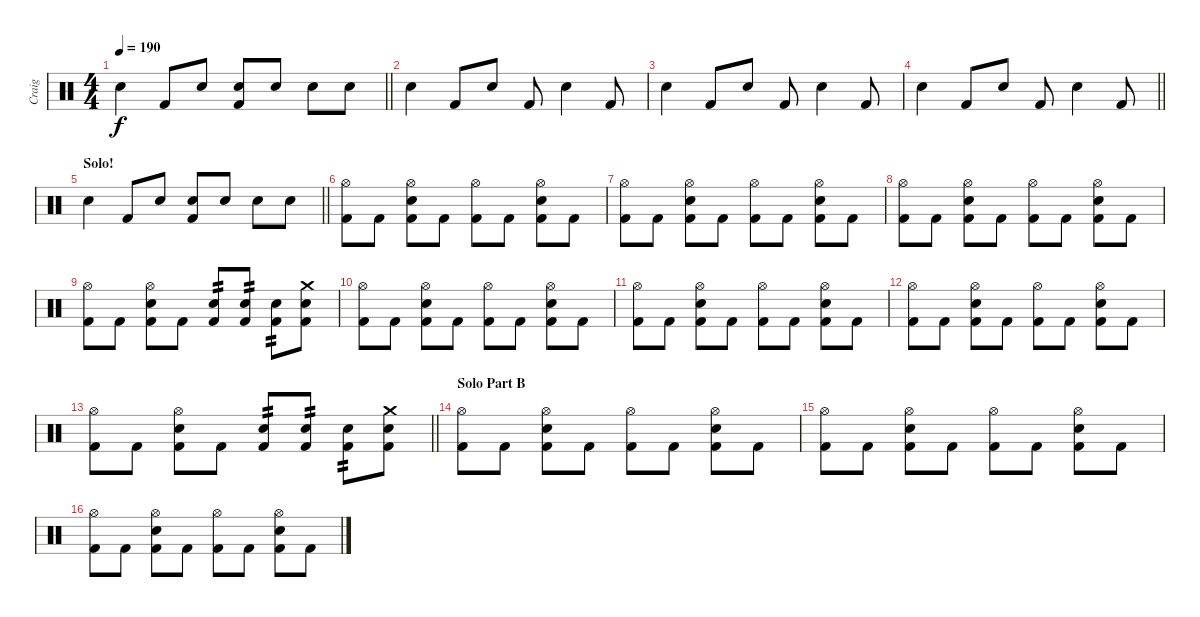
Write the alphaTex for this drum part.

\track ("Craig" "Craig") {instrument percussion}
\staff {score}
\articulation defaults
\ts (4 4)
\tempo 190
\clef neutral
\barLineRight lightlight
\ks c "Snare (hit) 2".4{dy f} "Kick (hit) 2".8 "Snare (hit) 2".8
("Snare (hit) 2" "Kick (hit) 2").8 "Snare (hit) 2".8 "Snare (hit) 2".8 "Snare (hit) 2".8 |
"Snare (hit) 2".4 "Kick (hit) 2".8 "Snare (hit) 2".8 "Kick (hit) 2".8 "Snare (hit) 2".4 "Kick (hit) 2".8 |
"Snare (hit) 2".4 "Kick (hit) 2".8 "Snare (hit) 2".8 "Kick (hit) 2".8 "Snare (hit) 2".4 "Kick (hit) 2".8 |
\barLineRight lightlight "Snare (hit) 2".4 "Kick (hit) 2".8 "Snare (hit) 2".8 "Kick (hit) 2".8 "Snare (hit) 2".4 "Kick (hit) 2".8
|
\section ("" "Solo!")
\barLineRight lightlight "Snare (hit) 2".4 "Kick (hit) 2".8 "Snare (hit) 2".8
("Snare (hit) 2" "Kick (hit) 2").8 "Snare (hit) 2".8 "Snare (hit) 2".8 "Snare (hit) 2".8 |
("Hi-Hat (open)" "Kick (hit) 2").8 "Kick (hit) 2".8 ("Hi-Hat (open)" "Snare (hit) 2" "Kick (hit) 2").8 "Kick (hit) 2".8 ("Hi-Hat (open)" "Kick (hit) 2").8 "Kick (hit) 2".8 ("Hi-Hat (open)" "Snare (hit) 2" "Kick (hit) 2").8 "Kick (hit) 2".8 |
("Hi-Hat (open)" "Kick (hit) 2").8 "Kick (hit) 2".8 ("Hi-Hat (open)" "Snare (hit) 2" "Kick (hit) 2").8 "Kick (hit) 2".8 ("Hi-Hat (open)" "Kick (hit) 2").8 "Kick (hit) 2".8 ("Hi-Hat (open)" "Snare (hit) 2" "Kick (hit) 2").8 "Kick (hit) 2".8 |
("Hi-Hat (open)" "Kick (hit) 2").8 "Kick (hit) 2".8 ("Hi-Hat (open)" "Snare (hit) 2" "Kick (hit) 2").8 "Kick (hit) 2".8 ("Hi-Hat (open)" "Kick (hit) 2").8 "Kick (hit) 2".8 ("Hi-Hat (open)" "Snare (hit) 2" "Kick (hit) 2").8 "Kick (hit) 2".8 |
("Hi-Hat (open)" "Kick (hit) 2").8 "Kick (hit) 2".8 ("Hi-Hat (open)" "Snare (hit) 2" "Kick (hit) 2").8 "Kick (hit) 2".8 ("Snare (hit) 2" "Kick (hit) 2").8{tp 2} ("Snare (hit) 2" "Kick (hit) 2").8{tp 2} ("Snare (hit) 2" "Kick (hit) 2").8{tp 2} ("Crash medium (hit)" "Snare (hit) 2" "Kick (hit) 2").8 |
("Hi-Hat (open)" "Kick (hit) 2").8 "Kick (hit) 2".8 ("Hi-Hat (open)" "Snare (hit) 2" "Kick (hit) 2").8 "Kick (hit) 2".8 ("Hi-Hat (open)" "Kick (hit) 2").8 "Kick (hit) 2".8 ("Hi-Hat (open)" "Snare (hit) 2" "Kick (hit) 2").8 "Kick (hit) 2".8 |
("Hi-Hat (open)" "Kick (hit) 2").8 "Kick (hit) 2".8 ("Hi-Hat (open)" "Snare (hit) 2" "Kick (hit) 2").8 "Kick (hit) 2".8 ("Hi-Hat (open)" "Kick (hit) 2").8 "Kick (hit) 2".8 ("Hi-Hat (open)" "Snare (hit) 2" "Kick (hit) 2").8 "Kick (hit) 2".8 |
("Hi-Hat (open)" "Kick (hit) 2").8 "Kick (hit) 2".8 ("Hi-Hat (open)" "Snare (hit) 2" "Kick (hit) 2").8 "Kick (hit) 2".8 ("Hi-Hat (open)" "Kick (hit) 2").8 "Kick (hit) 2".8 ("Hi-Hat (open)" "Snare (hit) 2" "Kick (hit) 2").8 "Kick (hit) 2".8 |
\barLineRight lightlight
("Hi-Hat (open)" "Kick (hit) 2").8 "Kick (hit) 2".8 ("Hi-Hat (open)" "Snare (hit) 2" "Kick (hit) 2").8 "Kick (hit) 2".8 ("Snare (hit) 2" "Kick (hit) 2").8{tp 2} ("Snare (hit) 2" "Kick (hit) 2").8{tp 2} ("Snare (hit) 2" "Kick (hit) 2").8{tp 2} ("Crash medium (hit)" "Snare (hit) 2" "Kick (hit) 2").8 |
\section ("" "Solo Part B")
("Hi-Hat (open)" "Kick (hit) 2").8 "Kick (hit) 2".8 ("Hi-Hat (open)" "Snare (hit) 2" "Kick (hit) 2").8 "Kick (hit) 2".8 ("Hi-Hat (open)" "Kick (hit) 2").8 "Kick (hit) 2".8 ("Hi-Hat (open)" "Snare (hit) 2" "Kick (hit) 2").8 "Kick (hit) 2".8 |
("Hi-Hat (open)" "Kick (hit) 2").8 "Kick (hit) 2".8 ("Hi-Hat (open)" "Snare (hit) 2" "Kick (hit) 2").8 "Kick (hit) 2".8 ("Hi-Hat (open)" "Kick (hit) 2").8 "Kick (hit) 2".8 ("Hi-Hat (open)" "Snare (hit) 2" "Kick (hit) 2").8 "Kick (hit) 2".8 |
("Hi-Hat (open)" "Kick (hit) 2").8 "Kick (hit) 2".8 ("Hi-Hat (open)" "Snare (hit) 2" "Kick (hit) 2").8 "Kick (hit) 2".8 ("Hi-Hat (open)" "Kick (hit) 2").8 "Kick (hit) 2".8 ("Hi-Hat (open)" "Snare (hit) 2" "Kick (hit) 2").8 "Kick (hit) 2".8
